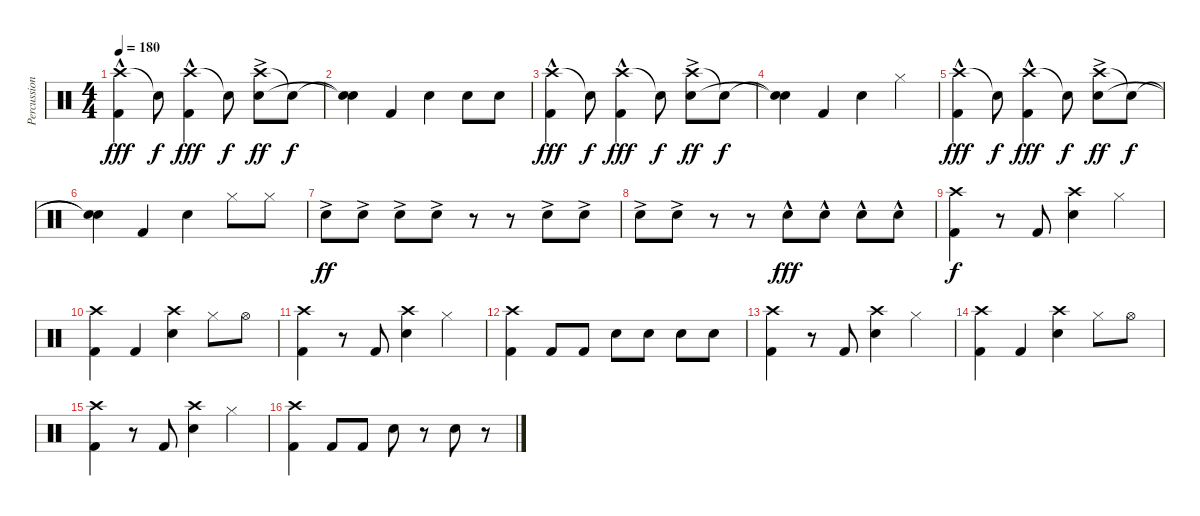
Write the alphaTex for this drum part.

\track ("Percussion" "Percussion") {instrument percussion}
\staff {score}
\articulation defaults
\ts (4 4)
\tempo 180
\clef neutral
\ks c
("Crash high (hit)" "Kick (hit) 2"{hac}).4{dy fff} "Snare (hit)"{t}.8{dy f} ("Crash high (hit)" "Kick (hit) 2"{hac}).4{dy fff} "Snare (hit)"{t}.8{dy f} ("Crash high (hit)" "Electric Snare (hit)"{ac}).8{dy ff} "Snare (hit)"{t}.8{dy f} |
("Snare (hit)"{t} "Snare (hit)"{t}).4 "Kick (hit) 2".4 "Electric Snare (hit)".4 "Electric Snare (hit)".8 "Electric Snare (hit)".8 |
("Crash high (hit)" "Kick (hit) 2"{hac}).4{dy fff} "Snare (hit)"{t}.8{dy f} ("Crash high (hit)" "Kick (hit) 2"{hac}).4{dy fff} "Snare (hit)"{t}.8{dy f} ("Crash high (hit)" "Electric Snare (hit)"{ac}).8{dy ff} "Snare (hit)"{t}.8{dy f} |
("Snare (hit)"{t} "Snare (hit)"{t}).4 "Kick (hit) 2".4 "Electric Snare (hit)".4 "Hi-Hat (closed)".4 |
("Crash high (hit)" "Kick (hit) 2"{hac}).4{dy fff} "Snare (hit)"{t}.8{dy f} ("Crash high (hit)" "Kick (hit) 2"{hac}).4{dy fff} "Snare (hit)"{t}.8{dy f} ("Crash high (hit)" "Electric Snare (hit)"{ac}).8{dy ff} "Snare (hit)"{t}.8{dy f} |
("Snare (hit)"{t} "Snare (hit)"{t}).4 "Kick (hit) 2".4 "Electric Snare (hit)".4 "Hi-Hat (closed)".8 "Hi-Hat (closed)".8 |
"Electric Snare (hit)"{ac}.8{dy ff} "Electric Snare (hit)"{ac}.8 "Electric Snare (hit)"{ac}.8 "Electric Snare (hit)"{ac}.8 r.8 r.8 "Electric Snare (hit)"{ac}.8 "Electric Snare (hit)"{ac}.8 |
"Electric Snare (hit)"{ac}.8 "Electric Snare (hit)"{ac}.8 r.8 r.8 "Electric Snare (hit)"{hac}.8{dy fff} "Electric Snare (hit)"{hac}.8 "Electric Snare (hit)"{hac}.8 "Electric Snare (hit)"{hac}.8 |
("Crash high (hit)" "Kick (hit) 2").4{dy f} r.8 "Kick (hit) 2".8 ("Crash high (hit)" "Electric Snare (hit)").4 "Hi-Hat (closed)".4 |
("Crash high (hit)" "Kick (hit) 2").4 "Kick (hit) 2".4 ("Crash high (hit)" "Electric Snare (hit)").4 "Hi-Hat (closed)".8 "Hi-Hat (open)".8 |
("Crash high (hit)" "Kick (hit) 2").4 r.8 "Kick (hit) 2".8 ("Crash high (hit)" "Electric Snare (hit)").4 "Hi-Hat (closed)".4 |
("Crash high (hit)" "Kick (hit) 2").4 "Kick (hit) 2".8 "Kick (hit) 2".8 "Electric Snare (hit)".8 "Electric Snare (hit)".8 "Electric Snare (hit)".8 "Electric Snare (hit)".8 |
("Crash high (hit)" "Kick (hit) 2").4 r.8 "Kick (hit) 2".8 ("Crash high (hit)" "Electric Snare (hit)").4 "Hi-Hat (closed)".4 |
("Crash high (hit)" "Kick (hit) 2").4 "Kick (hit) 2".4 ("Crash high (hit)" "Electric Snare (hit)").4 "Hi-Hat (closed)".8 "Hi-Hat (open)".8 |
("Crash high (hit)" "Kick (hit) 2").4 r.8 "Kick (hit) 2".8 ("Crash high (hit)" "Electric Snare (hit)").4 "Hi-Hat (closed)".4 |
("Crash high (hit)" "Kick (hit) 2").4 "Kick (hit) 2".8 "Kick (hit) 2".8 "Electric Snare (hit)".8 r.8 "Electric Snare (hit)".8 r.8
